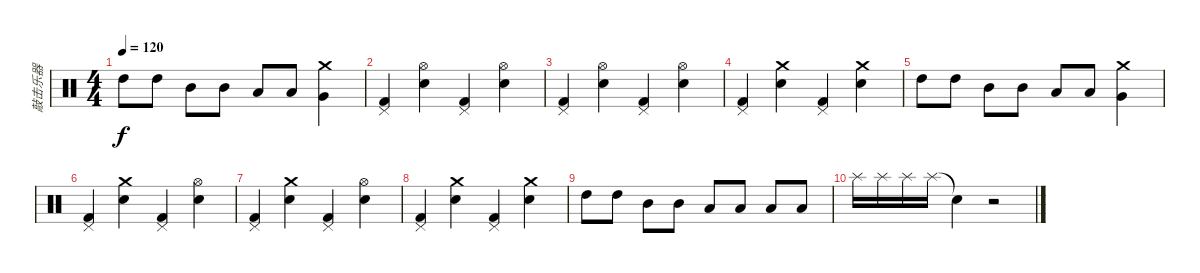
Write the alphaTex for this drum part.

\track ("敲击乐器" "敲击乐器") {instrument percussion}
\staff {score}
\articulation defaults
\ts (4 4)
\tempo 120
\clef neutral
\ks c "High Tom (hit)".8{dy f} "High Tom (hit)".8 "Mid Tom (hit)".8 "Mid Tom (hit)".8 "Low Tom (hit)".8 "Low Tom (hit)".8
("Crash medium (hit)" "Very Low Tom (hit)").4 |
("Pedal Hi-Hat (hit)" "Kick (hit) 2").4 ("Hi-Hat (open)" "Electric Snare (hit)").4 ("Pedal Hi-Hat (hit)" "Kick (hit) 2").4 ("Hi-Hat (open)" "Electric Snare (hit)").4 |
("Pedal Hi-Hat (hit)" "Kick (hit) 2").4 ("Hi-Hat (open)" "Electric Snare (hit)").4 ("Pedal Hi-Hat (hit)" "Kick (hit) 2").4 ("Hi-Hat (open)" "Electric Snare (hit)").4 |
("Pedal Hi-Hat (hit)" "Kick (hit) 2").4 ("Crash medium (hit)" "Electric Snare (hit)").4 ("Pedal Hi-Hat (hit)" "Kick (hit) 2").4 ("Crash medium (hit)" "Electric Snare (hit)").4 |
"High Tom (hit)".8 "High Tom (hit)".8 "Mid Tom (hit)".8 "Mid Tom (hit)".8 "Low Tom (hit)".8 "Low Tom (hit)".8 ("Crash medium (hit)" "Very Low Tom (hit)").4 |
("Pedal Hi-Hat (hit)" "Kick (hit) 2").4 ("Crash medium (hit)" "Electric Snare (hit)").4 ("Pedal Hi-Hat (hit)" "Kick (hit) 2").4 ("Hi-Hat (open)" "Electric Snare (hit)").4 |
("Pedal Hi-Hat (hit)" "Kick (hit) 2").4 ("Crash medium (hit)" "Electric Snare (hit)").4 ("Pedal Hi-Hat (hit)" "Kick (hit) 2").4 ("Hi-Hat (open)" "Electric Snare (hit)").4 |
("Pedal Hi-Hat (hit)" "Kick (hit) 2").4 ("Crash medium (hit)" "Electric Snare (hit)").4 ("Pedal Hi-Hat (hit)" "Kick (hit) 2").4 ("Crash medium (hit)" "Electric Snare (hit)").4 |
"High Tom (hit)".8 "High Tom (hit)".8 "Mid Tom (hit)".8 "Mid Tom (hit)".8 "Low Tom (hit)".8 "Low Tom (hit)".8 "Low Tom (hit)".8 "Low Tom (hit)".8 |
"Splash (hit)".16 "Splash (hit)".16 "Splash (hit)".16 "Splash (hit)".16 "Snare (hit)"{t}.4 r.2
